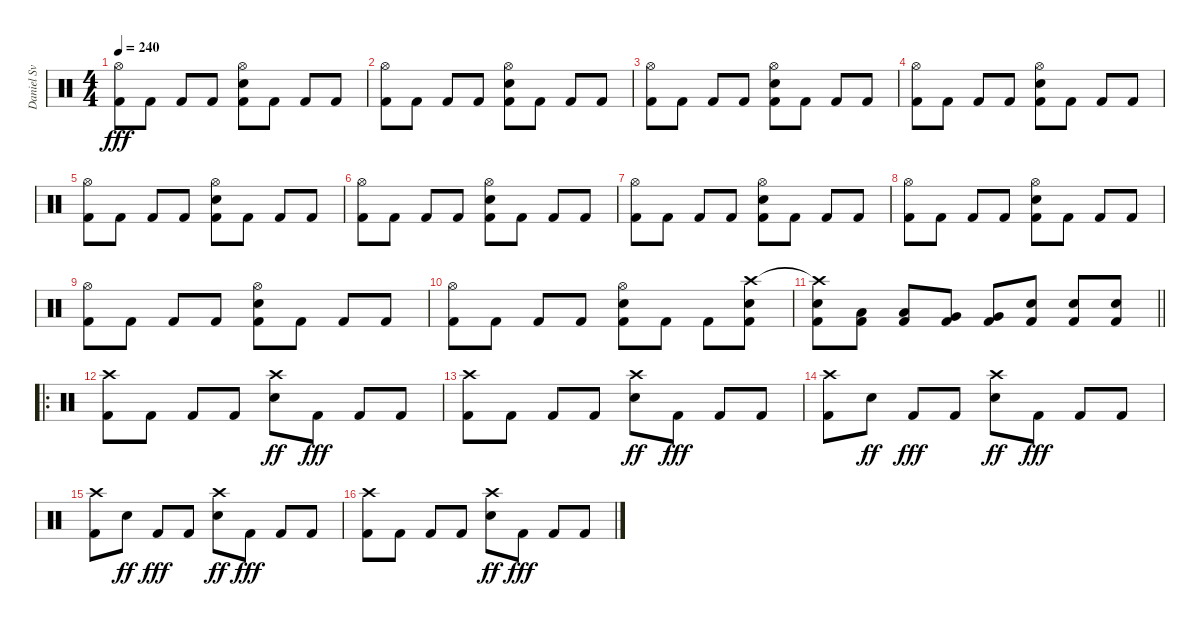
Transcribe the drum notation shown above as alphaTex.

\track (" Daniel Svensson" " Daniel Sv") {instrument percussion}
\staff {score}
\articulation defaults
\ts (4 4)
\tempo 240
\clef neutral
\ks c
("Hi-Hat (open)" "Kick (hit) 2").8{dy fff} "Kick (hit) 2".8 "Kick (hit) 2".8 "Kick (hit) 2".8 ("Hi-Hat (open)" "Electric Snare (hit)" "Kick (hit) 2").8 "Kick (hit) 2".8 "Kick (hit) 2".8 "Kick (hit) 2".8 |
("Hi-Hat (open)" "Kick (hit) 2").8 "Kick (hit) 2".8 "Kick (hit) 2".8 "Kick (hit) 2".8 ("Hi-Hat (open)" "Electric Snare (hit)" "Kick (hit) 2").8 "Kick (hit) 2".8 "Kick (hit) 2".8 "Kick (hit) 2".8 |
("Hi-Hat (open)" "Kick (hit) 2").8 "Kick (hit) 2".8 "Kick (hit) 2".8 "Kick (hit) 2".8 ("Hi-Hat (open)" "Electric Snare (hit)" "Kick (hit) 2").8 "Kick (hit) 2".8 "Kick (hit) 2".8 "Kick (hit) 2".8 |
("Hi-Hat (open)" "Kick (hit) 2").8 "Kick (hit) 2".8 "Kick (hit) 2".8 "Kick (hit) 2".8 ("Hi-Hat (open)" "Electric Snare (hit)" "Kick (hit) 2").8 "Kick (hit) 2".8 "Kick (hit) 2".8 "Kick (hit) 2".8 |
("Hi-Hat (open)" "Kick (hit) 2").8 "Kick (hit) 2".8 "Kick (hit) 2".8 "Kick (hit) 2".8 ("Hi-Hat (open)" "Electric Snare (hit)" "Kick (hit) 2").8 "Kick (hit) 2".8 "Kick (hit) 2".8 "Kick (hit) 2".8 |
("Hi-Hat (open)" "Kick (hit) 2").8 "Kick (hit) 2".8 "Kick (hit) 2".8 "Kick (hit) 2".8 ("Hi-Hat (open)" "Electric Snare (hit)" "Kick (hit) 2").8 "Kick (hit) 2".8 "Kick (hit) 2".8 "Kick (hit) 2".8 |
("Hi-Hat (open)" "Kick (hit) 2").8 "Kick (hit) 2".8 "Kick (hit) 2".8 "Kick (hit) 2".8 ("Hi-Hat (open)" "Electric Snare (hit)" "Kick (hit) 2").8 "Kick (hit) 2".8 "Kick (hit) 2".8 "Kick (hit) 2".8 |
("Hi-Hat (open)" "Kick (hit) 2").8 "Kick (hit) 2".8 "Kick (hit) 2".8 "Kick (hit) 2".8 ("Hi-Hat (open)" "Electric Snare (hit)" "Kick (hit) 2").8 "Kick (hit) 2".8 "Kick (hit) 2".8 "Kick (hit) 2".8 |
("Hi-Hat (open)" "Kick (hit) 2").8 "Kick (hit) 2".8 "Kick (hit) 2".8 "Kick (hit) 2".8 ("Hi-Hat (open)" "Electric Snare (hit)" "Kick (hit) 2").8 "Kick (hit) 2".8 "Kick (hit) 2".8 "Kick (hit) 2".8 |
("Hi-Hat (open)" "Kick (hit) 2").8 "Kick (hit) 2".8 "Kick (hit) 2".8 "Kick (hit) 2".8 ("Hi-Hat (open)" "Electric Snare (hit)" "Kick (hit) 2").8 "Kick (hit) 2".8 "Kick (hit) 2".8 ("Crash high (hit)" "Electric Snare (hit)" "Kick (hit) 2").8 |
\barLineRight lightlight
("Crash high (hit)"{t} "Electric Snare (hit)" "Kick (hit) 2").8 ("Low Floor Tom (hit)" "Kick (hit) 2").8 ("Low Tom (hit)" "Kick (hit) 2").8 ("Very Low Tom (hit)" "Kick (hit) 2").8 ("Very Low Tom (hit)" "Kick (hit) 2").8 ("Electric Snare (hit)" "Kick (hit) 2").8 ("Electric Snare (hit)" "Kick (hit) 2").8 ("Electric Snare (hit)" "Kick (hit) 2").8 |
\ro
("Crash high (hit)" "Kick (hit) 2").8 "Kick (hit) 2".8 "Kick (hit) 2".8 "Kick (hit) 2".8 ("Crash high (hit)" "Electric Snare (hit)").8{dy ff} "Kick (hit) 2".8{dy fff} "Kick (hit) 2".8 "Kick (hit) 2".8 |
("Crash high (hit)" "Kick (hit) 2").8 "Kick (hit) 2".8 "Kick (hit) 2".8 "Kick (hit) 2".8 ("Crash high (hit)" "Electric Snare (hit)").8{dy ff} "Kick (hit) 2".8{dy fff} "Kick (hit) 2".8 "Kick (hit) 2".8 |
("Crash high (hit)" "Kick (hit) 2").8 "Electric Snare (hit)".8{dy ff} "Kick (hit) 2".8{dy fff} "Kick (hit) 2".8 ("Crash high (hit)" "Electric Snare (hit)").8{dy ff} "Kick (hit) 2".8{dy fff} "Kick (hit) 2".8 "Kick (hit) 2".8 |
("Crash high (hit)" "Kick (hit) 2").8 "Electric Snare (hit)".8{dy ff} "Kick (hit) 2".8{dy fff} "Kick (hit) 2".8 ("Crash high (hit)" "Electric Snare (hit)").8{dy ff} "Kick (hit) 2".8{dy fff} "Kick (hit) 2".8 "Kick (hit) 2".8 |
("Crash high (hit)" "Kick (hit) 2").8 "Kick (hit) 2".8 "Kick (hit) 2".8 "Kick (hit) 2".8 ("Crash high (hit)" "Electric Snare (hit)").8{dy ff} "Kick (hit) 2".8{dy fff} "Kick (hit) 2".8 "Kick (hit) 2".8
